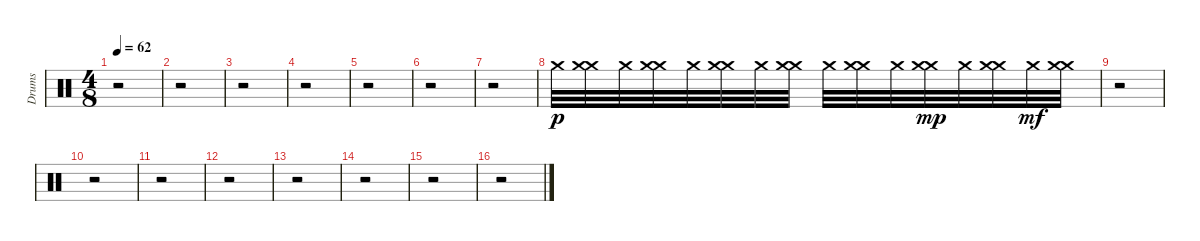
\track ("Drums" "Drums") {instrument percussion}
\staff {score}
\articulation defaults
\ts (4 8)
\tempo 62
\clef neutral
\ks c
r.2{dy p} |
r.2 |
r.2 |
r.2 |
r.2 |
r.2 |
r.2 |
"Crash medium (hit)".32 ("Crash medium (hit)" "Crash medium (hit)").32 "Crash medium (hit)".32 ("Crash medium (hit)" "Crash medium (hit)").32 "Crash medium (hit)".32 ("Crash medium (hit)" "Crash medium (hit)").32 "Crash medium (hit)".32 ("Crash medium (hit)" "Crash medium (hit)").32 "Crash medium (hit)".32 ("Crash medium (hit)" "Crash medium (hit)").32 "Crash medium (hit)".32 ("Crash medium (hit)" "Crash medium (hit)").32{dy mp} "Crash medium (hit)".32 ("Crash medium (hit)" "Crash medium (hit)").32 "Crash medium (hit)".32{dy mf} ("Crash medium (hit)" "Crash medium (hit)").32 |
r.2 |
r.2 |
r.2 |
r.2 |
r.2 |
r.2 |
r.2 |
r.2
